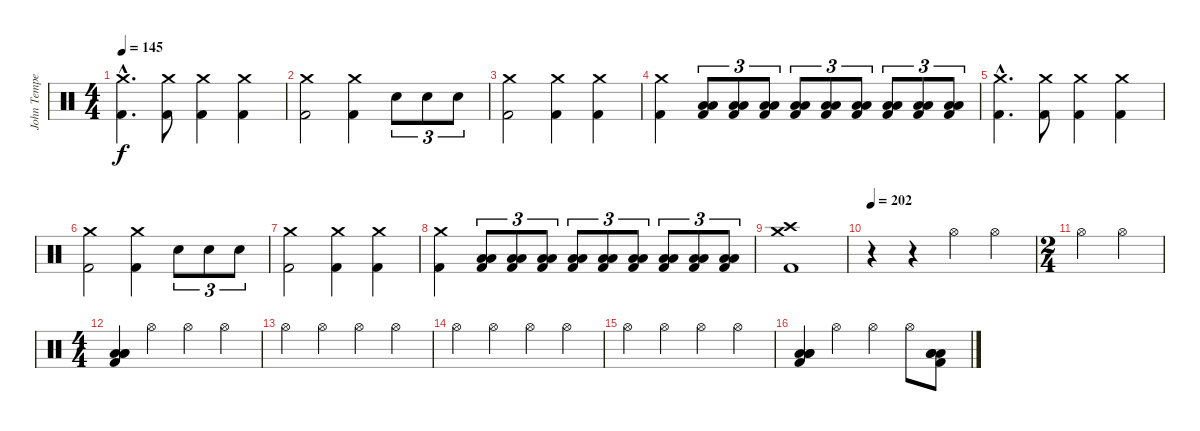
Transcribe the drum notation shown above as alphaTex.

\track ("John Tempesta" "John Tempe") {instrument percussion}
\staff {score}
\articulation defaults
\ts (4 4)
\tempo 145
\clef neutral
\ks c
("Kick (hit) 2"{hac} "Crash medium (hit)"{hac}).4{d dy f} ("Kick (hit) 2" "Crash medium (hit)").8 ("Kick (hit) 2" "Crash medium (hit)").4 ("Kick (hit) 2" "Crash medium (hit)").4 |
("Kick (hit) 2" "Crash medium (hit)").2 ("Kick (hit) 2" "Crash medium (hit)").4 "Snare (hit) 2".8{tu (3 2)} "Snare (hit) 2".8{tu (3 2)} "Snare (hit) 2".8{tu (3 2)} |
("Kick (hit) 2" "Crash medium (hit)").2 ("Kick (hit) 2" "Crash medium (hit)").4 ("Kick (hit) 2" "Crash medium (hit)").4 |
("Kick (hit) 2" "Crash medium (hit)").4 ("Kick (hit) 2" "Low Tom (hit)" "Low Floor Tom (hit)").8{tu (3 2)} ("Kick (hit) 2" "Low Tom (hit)" "Low Floor Tom (hit)").8{tu (3 2)} ("Kick (hit) 2" "Low Tom (hit)" "Low Floor Tom (hit)").8{tu (3 2)} ("Kick (hit) 2" "Low Tom (hit)" "Low Floor Tom (hit)").8{tu (3 2)} ("Kick (hit) 2" "Low Tom (hit)" "Low Floor Tom (hit)").8{tu (3 2)} ("Kick (hit) 2" "Low Tom (hit)" "Low Floor Tom (hit)").8{tu (3 2)} ("Kick (hit) 2" "Low Tom (hit)" "Low Floor Tom (hit)").8{tu (3 2)} ("Kick (hit) 2" "Low Tom (hit)" "Low Floor Tom (hit)").8{tu (3 2)} ("Kick (hit) 2" "Low Tom (hit)" "Low Floor Tom (hit)").8{tu (3 2)} |
("Kick (hit) 2"{hac} "Crash medium (hit)"{hac}).4{d} ("Kick (hit) 2" "Crash medium (hit)").8 ("Kick (hit) 2" "Crash medium (hit)").4 ("Kick (hit) 2" "Crash medium (hit)").4 |
("Kick (hit) 2" "Crash medium (hit)").2 ("Kick (hit) 2" "Crash medium (hit)").4 "Snare (hit) 2".8{tu (3 2)} "Snare (hit) 2".8{tu (3 2)} "Snare (hit) 2".8{tu (3 2)} |
("Kick (hit) 2" "Crash medium (hit)").2 ("Kick (hit) 2" "Crash medium (hit)").4 ("Kick (hit) 2" "Crash medium (hit)").4 |
("Kick (hit) 2" "Crash medium (hit)").4 ("Kick (hit) 2" "Low Tom (hit)" "Low Floor Tom (hit)").8{tu (3 2)} ("Kick (hit) 2" "Low Tom (hit)" "Low Floor Tom (hit)").8{tu (3 2)} ("Kick (hit) 2" "Low Tom (hit)" "Low Floor Tom (hit)").8{tu (3 2)} ("Kick (hit) 2" "Low Tom (hit)" "Low Floor Tom (hit)").8{tu (3 2)} ("Kick (hit) 2" "Low Tom (hit)" "Low Floor Tom (hit)").8{tu (3 2)} ("Kick (hit) 2" "Low Tom (hit)" "Low Floor Tom (hit)").8{tu (3 2)} ("Kick (hit) 2" "Low Tom (hit)" "Low Floor Tom (hit)").8{tu (3 2)} ("Kick (hit) 2" "Low Tom (hit)" "Low Floor Tom (hit)").8{tu (3 2)} ("Kick (hit) 2" "Low Tom (hit)" "Low Floor Tom (hit)").8{tu (3 2)} |
("Kick (hit) 2" "Crash medium (hit)" "Crash high (hit)").1 |
\tempo 202
r.4 r.4 "Hi-Hat (open)".4 "Hi-Hat (open)".4 |
\ts (2 4)
"Hi-Hat (open)".4 "Hi-Hat (open)".4 |
\ts (4 4)
("Kick (hit) 2" "Low Floor Tom (hit)" "Low Tom (hit)" "Low Floor Tom (hit)").4 "Hi-Hat (open)".4 "Hi-Hat (open)".4 "Hi-Hat (open)".4 |
"Hi-Hat (open)".4 "Hi-Hat (open)".4 "Hi-Hat (open)".4 "Hi-Hat (open)".4 |
"Hi-Hat (open)".4 "Hi-Hat (open)".4 "Hi-Hat (open)".4 "Hi-Hat (open)".4 |
"Hi-Hat (open)".4 "Hi-Hat (open)".4 "Hi-Hat (open)".4 "Hi-Hat (open)".4 |
("Kick (hit) 2" "Low Floor Tom (hit)" "Low Tom (hit)" "Low Floor Tom (hit)").4 "Hi-Hat (open)".4 "Hi-Hat (open)".4 "Hi-Hat (open)".8 ("Kick (hit) 2" "Low Floor Tom (hit)" "Low Tom (hit)" "Low Floor Tom (hit)").8
